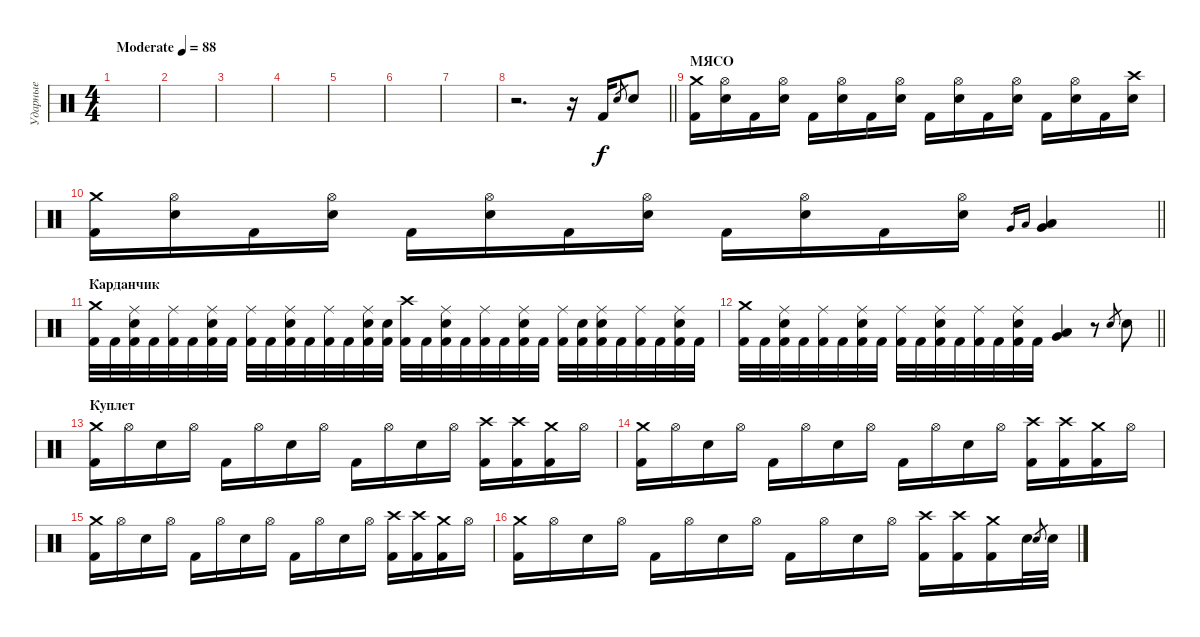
\track ("Ударные" "Ударные") {instrument percussion}
\staff {score}
\articulation defaults
\ts (4 4)
\tempo (88 "Moderate")
\clef neutral
\ks c
|
|
|
|
|
|
|
\barLineRight lightlight
r.2{d} r.16 "Kick (hit) 2".16 "Snare (hit) 2".8{gr} "Snare (hit) 2".8 |
\section ("" "МЯСО")
("Kick (hit) 2" "Crash medium (hit)").16 ("Snare (hit) 2" "Hi-Hat (open)").16 "Kick (hit) 2".16 ("Snare (hit) 2" "Hi-Hat (open)").16 "Kick (hit) 2".16 ("Snare (hit) 2" "Hi-Hat (open)").16 "Kick (hit) 2".16 ("Snare (hit) 2" "Hi-Hat (open)").16 "Kick (hit) 2".16 ("Snare (hit) 2" "Hi-Hat (open)").16 "Kick (hit) 2".16 ("Snare (hit) 2" "Hi-Hat (open)").16 "Kick (hit) 2".16 ("Snare (hit) 2" "Hi-Hat (open)").16 "Kick (hit) 2".16 ("Snare (hit) 2" "Crash high (hit)").16 |
\barLineRight lightlight
("Kick (hit) 2" "Crash medium (hit)").16 ("Snare (hit) 2" "Hi-Hat (open)").16 "Kick (hit) 2".16 ("Snare (hit) 2" "Hi-Hat (open)").16 "Kick (hit) 2".16 ("Snare (hit) 2" "Hi-Hat (open)").16 "Kick (hit) 2".16 ("Snare (hit) 2" "Hi-Hat (open)").16 "Kick (hit) 2".16 ("Snare (hit) 2" "Hi-Hat (open)").16 "Kick (hit) 2".16 ("Snare (hit) 2" "Hi-Hat (open)").16 "Very Low Tom (hit)".16{gr} "Low Floor Tom (hit)".16{gr} ("Very Low Tom (hit)" "Low Floor Tom (hit)").4 |
\section ("" "Карданчик")
("Crash medium (hit)" "Kick (hit) 2").32 "Kick (hit) 2".32 ("Ride (middle)" "Snare (hit) 2" "Kick (hit) 2").32 "Kick (hit) 2".32 ("Ride (middle)" "Kick (hit) 2").32 "Kick (hit) 2".32 ("Ride (middle)" "Snare (hit) 2" "Kick (hit) 2").32 "Kick (hit) 2".32 ("Ride (middle)" "Kick (hit) 2").32 "Kick (hit) 2".32 ("Ride (middle)" "Snare (hit) 2" "Kick (hit) 2").32 "Kick (hit) 2".32 ("Ride (middle)" "Kick (hit) 2").32 "Kick (hit) 2".32 ("Ride (middle)" "Snare (hit) 2" "Kick (hit) 2").32 ("Snare (hit)" "Kick (hit) 2").32 ("Crash high (hit)" "Kick (hit) 2").32 "Kick (hit) 2".32 ("Ride (middle)" "Snare (hit) 2" "Kick (hit) 2").32 "Kick (hit) 2".32 ("Ride (middle)" "Kick (hit) 2").32 "Kick (hit) 2".32 ("Ride (middle)" "Snare (hit) 2" "Kick (hit) 2").32 "Kick (hit) 2".32 ("Ride (middle)" "Kick (hit) 2").32 ("Snare (hit)" "Kick (hit) 2").32 ("Ride (middle)" "Snare (hit) 2" "Kick (hit) 2").32 "Kick (hit) 2".32 ("Ride (middle)" "Kick (hit) 2").32 "Kick (hit) 2".32 ("Ride (middle)" "Snare (hit) 2" "Kick (hit) 2").32 "Kick (hit) 2".32 |
\barLineRight lightlight
("Crash medium (hit)" "Kick (hit) 2").32 "Kick (hit) 2".32 ("Ride (middle)" "Snare (hit) 2" "Kick (hit) 2").32 "Kick (hit) 2".32 ("Ride (middle)" "Kick (hit) 2").32 "Kick (hit) 2".32 ("Ride (middle)" "Snare (hit) 2" "Kick (hit) 2").32 "Kick (hit) 2".32 ("Ride (middle)" "Kick (hit) 2").32 "Kick (hit) 2".32 ("Ride (middle)" "Snare (hit) 2" "Kick (hit) 2").32 "Kick (hit) 2".32 ("Ride (middle)" "Kick (hit) 2").32 "Kick (hit) 2".32 ("Ride (middle)" "Snare (hit) 2" "Kick (hit) 2").32 "Kick (hit) 2".32 ("Very Low Tom (hit)" "Low Floor Tom (hit)").4 r.8 "Snare (hit) 2".8{gr} "Snare (hit) 2".8 |
\section ("" "Куплет")
("Kick (hit) 2" "Crash medium (hit)").16 "Hi-Hat (open)".16 "Snare (hit) 2".16 "Hi-Hat (open)".16 "Kick (hit) 2".16 "Hi-Hat (open)".16 "Snare (hit) 2".16 "Hi-Hat (open)".16 "Kick (hit) 2".16 "Hi-Hat (open)".16 "Snare (hit) 2".16 "Hi-Hat (open)".16 ("Kick (hit) 2" "Crash high (hit)").16 ("Kick (hit) 2" "Crash high (hit)").16 ("Crash medium (hit)" "Kick (hit) 2").16 "Hi-Hat (open)".16 |
("Kick (hit) 2" "Crash medium (hit)").16 "Hi-Hat (open)".16 "Snare (hit) 2".16 "Hi-Hat (open)".16 "Kick (hit) 2".16 "Hi-Hat (open)".16 "Snare (hit) 2".16 "Hi-Hat (open)".16 "Kick (hit) 2".16 "Hi-Hat (open)".16 "Snare (hit) 2".16 "Hi-Hat (open)".16 ("Kick (hit) 2" "Crash high (hit)").16 ("Kick (hit) 2" "Crash high (hit)").16 ("Crash medium (hit)" "Kick (hit) 2").16 "Hi-Hat (open)".16 |
("Kick (hit) 2" "Crash medium (hit)").16 "Hi-Hat (open)".16 "Snare (hit) 2".16 "Hi-Hat (open)".16 "Kick (hit) 2".16 "Hi-Hat (open)".16 "Snare (hit) 2".16 "Hi-Hat (open)".16 "Kick (hit) 2".16 "Hi-Hat (open)".16 "Snare (hit) 2".16 "Hi-Hat (open)".16 ("Kick (hit) 2" "Crash high (hit)").16 ("Kick (hit) 2" "Crash high (hit)").16 ("Crash medium (hit)" "Kick (hit) 2").16 "Hi-Hat (open)".16 |
("Kick (hit) 2" "Crash medium (hit)").16 "Hi-Hat (open)".16 "Snare (hit) 2".16 "Hi-Hat (open)".16 "Kick (hit) 2".16 "Hi-Hat (open)".16 "Snare (hit) 2".16 "Hi-Hat (open)".16 "Kick (hit) 2".16 "Hi-Hat (open)".16 "Snare (hit) 2".16 "Hi-Hat (open)".16 ("Kick (hit) 2" "Crash high (hit)").16 ("Kick (hit) 2" "Crash high (hit)").16 ("Crash medium (hit)" "Kick (hit) 2").16 "Snare (hit) 2".32 "Snare (hit) 2".8{gr} "Snare (hit) 2".32
